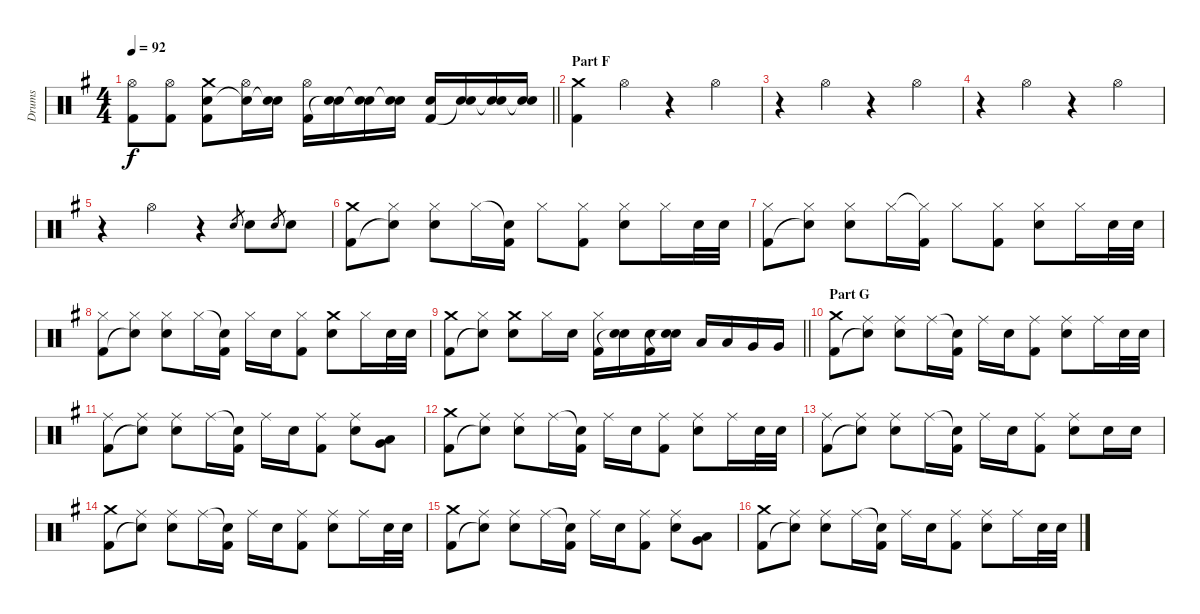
\track ("Drums" "Drums") {instrument percussion}
\staff {score}
\articulation defaults
\ts (4 4)
\tempo 92
\clef neutral
\barLineRight lightlight
\ks g
("Hi-Hat (open)" "Kick (hit) 2").8{dy f} ("Hi-Hat (open)" "Kick (hit) 2").8 ("Crash medium (hit)" "Electric Snare (hit)" "Kick (hit) 2").8 ("Hi-Hat (open)" "Snare (hit)"{t}).16 ("Electric Snare (hit)" "Snare (hit)"{t}).16 ("Hi-Hat (open)" "Kick (hit) 2").16 ("Electric Snare (hit)" "Snare (hit)"{t}).16 ("Electric Snare (hit)" "Snare (hit)"{t}).16 ("Electric Snare (hit)" "Snare (hit)"{t}).16 ("Electric Snare (hit)" "Kick (hit) 2").16 ("Electric Snare (hit)" "Snare (hit)"{t}).16 ("Electric Snare (hit)" "Snare (hit)"{t}).16 ("Electric Snare (hit)" "Snare (hit)"{t}).16 |
\section ("" "Part F")
("Crash medium (hit)" "Kick (hit) 2").4 "Hi-Hat (open)".4 r.4 "Hi-Hat (open)".4 |
r.4 "Hi-Hat (open)".4 r.4 "Hi-Hat (open)".4 |
r.4 "Hi-Hat (open)".4 r.4 "Hi-Hat (open)".4 |
r.4 "Hi-Hat (open)".4 r.4 "Electric Snare (hit)".8{gr} "Electric Snare (hit)".8 "Electric Snare (hit)".8{gr} "Electric Snare (hit)".8 |
("Crash medium (hit)" "Kick (hit) 2").8 ("Hi-Hat (closed)" "Snare (hit)"{t}).8 ("Hi-Hat (closed)" "Electric Snare (hit)").8 "Hi-Hat (closed)".16 ("Snare (hit)"{t} "Kick (hit) 2").16 "Hi-Hat (closed)".8 ("Hi-Hat (closed)" "Kick (hit) 2").8 ("Hi-Hat (closed)" "Electric Snare (hit)").8 "Hi-Hat (closed)".16 "Electric Snare (hit)".32 "Electric Snare (hit)".32 |
("Hi-Hat (closed)" "Kick (hit) 2").8 ("Hi-Hat (closed)" "Snare (hit)"{t}).8 ("Hi-Hat (closed)" "Electric Snare (hit)").8 "Hi-Hat (closed)".16 ("Hi-Hat (closed)"{t} "Kick (hit) 2").16 "Hi-Hat (closed)".8 ("Hi-Hat (closed)" "Kick (hit) 2").8 ("Hi-Hat (closed)" "Electric Snare (hit)").8 "Hi-Hat (closed)".16 "Electric Snare (hit)".32 "Electric Snare (hit)".32 |
("Hi-Hat (closed)" "Kick (hit) 2").8 ("Hi-Hat (closed)" "Snare (hit)"{t}).8 ("Hi-Hat (closed)" "Electric Snare (hit)").8 "Hi-Hat (closed)".16 ("Snare (hit)"{t} "Kick (hit) 2").16 "Hi-Hat (closed)".16 "Electric Snare (hit)".16 ("Hi-Hat (closed)" "Kick (hit) 2").8 ("Crash medium (hit)" "Electric Snare (hit)").8 "Hi-Hat (closed)".16 "Electric Snare (hit)".32 "Electric Snare (hit)".32 |
\barLineRight lightlight
("Crash medium (hit)" "Kick (hit) 2").8 ("Hi-Hat (closed)" "Snare (hit)"{t}).8 ("Crash medium (hit)" "Electric Snare (hit)").8 "Hi-Hat (closed)".16 "Electric Snare (hit)".16 ("Hi-Hat (closed)" "Kick (hit) 2").16 ("Electric Snare (hit)" "Snare (hit)"{t}).16 ("Electric Snare (hit)" "Kick (hit) 2").16 ("Electric Snare (hit)" "Snare (hit)"{t}).16 "Low Tom (hit)".16 "Low Tom (hit)".16 "Very Low Tom (hit)".16 "Very Low Tom (hit)".16 |
\section ("" "Part G")
("Crash medium (hit)" "Kick (hit) 2").8 ("Ride (middle)" "Snare (hit)"{t}).8 ("Ride (middle)" "Electric Snare (hit)").8 "Ride (middle)".16 ("Snare (hit)"{t} "Kick (hit) 2").16 "Ride (middle)".16 "Electric Snare (hit)".16 ("Ride (middle)" "Kick (hit) 2").8 ("Ride (middle)" "Electric Snare (hit)").8 "Ride (middle)".16 "Electric Snare (hit)".32 "Electric Snare (hit)".32 |
("Ride (middle)" "Kick (hit) 2").8 ("Ride (middle)" "Snare (hit)"{t}).8 ("Ride (middle)" "Electric Snare (hit)").8 "Ride (middle)".16 ("Snare (hit)"{t} "Kick (hit) 2").16 "Ride (middle)".16 "Electric Snare (hit)".16 ("Ride (middle)" "Kick (hit) 2").8 ("Ride (middle)" "Electric Snare (hit)").8 ("Low Tom (hit)" "Very Low Tom (hit)").8 |
("Crash medium (hit)" "Kick (hit) 2").8 ("Ride (middle)" "Snare (hit)"{t}).8 ("Ride (middle)" "Electric Snare (hit)").8 "Ride (middle)".16 ("Snare (hit)"{t} "Kick (hit) 2").16 "Ride (middle)".16 "Electric Snare (hit)".16 ("Ride (middle)" "Kick (hit) 2").8 ("Ride (middle)" "Electric Snare (hit)").8 "Ride (middle)".16 "Electric Snare (hit)".32 "Electric Snare (hit)".32 |
("Ride (middle)" "Kick (hit) 2").8 ("Ride (middle)" "Snare (hit)"{t}).8 ("Ride (middle)" "Electric Snare (hit)").8 "Ride (middle)".16 ("Snare (hit)"{t} "Kick (hit) 2").16 "Ride (middle)".16 "Electric Snare (hit)".16 ("Ride (middle)" "Kick (hit) 2").8 ("Ride (middle)" "Electric Snare (hit)").8 "Electric Snare (hit)".16 "Electric Snare (hit)".16 |
("Crash medium (hit)" "Kick (hit) 2").8 ("Ride (middle)" "Snare (hit)"{t}).8 ("Ride (middle)" "Electric Snare (hit)").8 "Ride (middle)".16 ("Snare (hit)"{t} "Kick (hit) 2").16 "Ride (middle)".16 "Electric Snare (hit)".16 ("Ride (middle)" "Kick (hit) 2").8 ("Ride (middle)" "Electric Snare (hit)").8 "Ride (middle)".16 "Electric Snare (hit)".32 "Electric Snare (hit)".32 |
("Crash medium (hit)" "Kick (hit) 2").8 ("Ride (middle)" "Snare (hit)"{t}).8 ("Ride (middle)" "Electric Snare (hit)").8 "Ride (middle)".16 ("Snare (hit)"{t} "Kick (hit) 2").16 "Ride (middle)".16 "Electric Snare (hit)".16 ("Ride (middle)" "Kick (hit) 2").8 ("Ride (middle)" "Electric Snare (hit)").8 ("Low Tom (hit)" "Very Low Tom (hit)").8 |
("Crash medium (hit)" "Kick (hit) 2").8 ("Ride (middle)" "Snare (hit)"{t}).8 ("Ride (middle)" "Electric Snare (hit)").8 "Ride (middle)".16 ("Snare (hit)"{t} "Kick (hit) 2").16 "Ride (middle)".16 "Electric Snare (hit)".16 ("Ride (middle)" "Kick (hit) 2").8 ("Ride (middle)" "Electric Snare (hit)").8 "Ride (middle)".16 "Electric Snare (hit)".32 "Electric Snare (hit)".32
